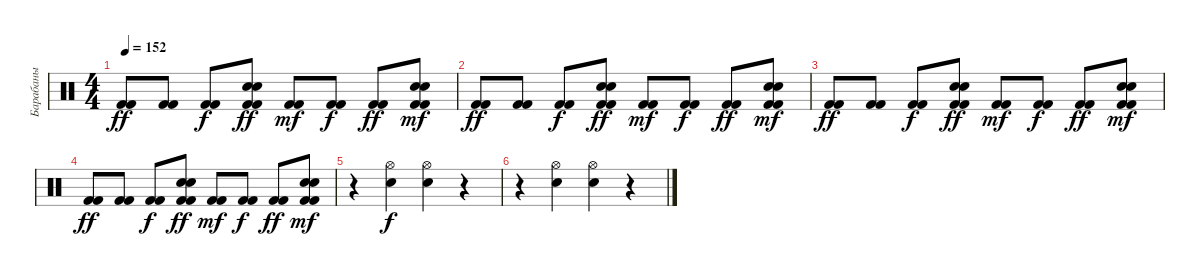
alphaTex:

\track ("Барабаны" "Барабаны") {instrument percussion}
\staff {score}
\articulation defaults
\ts (4 4)
\tempo 152
\clef neutral
\ks c
("Kick (hit) 2" "Kick (hit) 2").8{dy ff} ("Kick (hit) 2" "Kick (hit) 2").8 ("Kick (hit) 2" "Kick (hit) 2").8{dy f} ("Kick (hit) 2" "Kick (hit) 2" "Snare (hit) 2" "Snare (hit) 2").8{dy ff} ("Kick (hit) 2" "Kick (hit) 2").8{dy mf} ("Kick (hit) 2" "Kick (hit) 2").8{dy f} ("Kick (hit) 2" "Kick (hit) 2").8{dy ff} ("Kick (hit) 2" "Kick (hit) 2" "Snare (hit) 2" "Snare (hit) 2").8{dy mf} |
("Kick (hit) 2" "Kick (hit) 2").8{dy ff} ("Kick (hit) 2" "Kick (hit) 2").8 ("Kick (hit) 2" "Kick (hit) 2").8{dy f} ("Kick (hit) 2" "Kick (hit) 2" "Snare (hit) 2" "Snare (hit) 2").8{dy ff} ("Kick (hit) 2" "Kick (hit) 2").8{dy mf} ("Kick (hit) 2" "Kick (hit) 2").8{dy f} ("Kick (hit) 2" "Kick (hit) 2").8{dy ff} ("Kick (hit) 2" "Kick (hit) 2" "Snare (hit) 2" "Snare (hit) 2").8{dy mf} |
("Kick (hit) 2" "Kick (hit) 2").8{dy ff} ("Kick (hit) 2" "Kick (hit) 2").8 ("Kick (hit) 2" "Kick (hit) 2").8{dy f} ("Kick (hit) 2" "Kick (hit) 2" "Snare (hit) 2" "Snare (hit) 2").8{dy ff} ("Kick (hit) 2" "Kick (hit) 2").8{dy mf} ("Kick (hit) 2" "Kick (hit) 2").8{dy f} ("Kick (hit) 2" "Kick (hit) 2").8{dy ff} ("Kick (hit) 2" "Kick (hit) 2" "Snare (hit) 2" "Snare (hit) 2").8{dy mf} |
("Kick (hit) 2" "Kick (hit) 2").8{dy ff} ("Kick (hit) 2" "Kick (hit) 2").8 ("Kick (hit) 2" "Kick (hit) 2").8{dy f} ("Kick (hit) 2" "Kick (hit) 2" "Snare (hit) 2" "Snare (hit) 2").8{dy ff} ("Kick (hit) 2" "Kick (hit) 2").8{dy mf} ("Kick (hit) 2" "Kick (hit) 2").8{dy f} ("Kick (hit) 2" "Kick (hit) 2").8{dy ff} ("Kick (hit) 2" "Kick (hit) 2" "Snare (hit) 2" "Snare (hit) 2").8{dy mf} |
r.4 ("Snare (hit) 2" "Hi-Hat (open)").4{dy f} ("Snare (hit) 2" "Hi-Hat (open)").4 r.4 |
r.4 ("Snare (hit) 2" "Hi-Hat (open)").4 ("Snare (hit) 2" "Hi-Hat (open)").4 r.4
